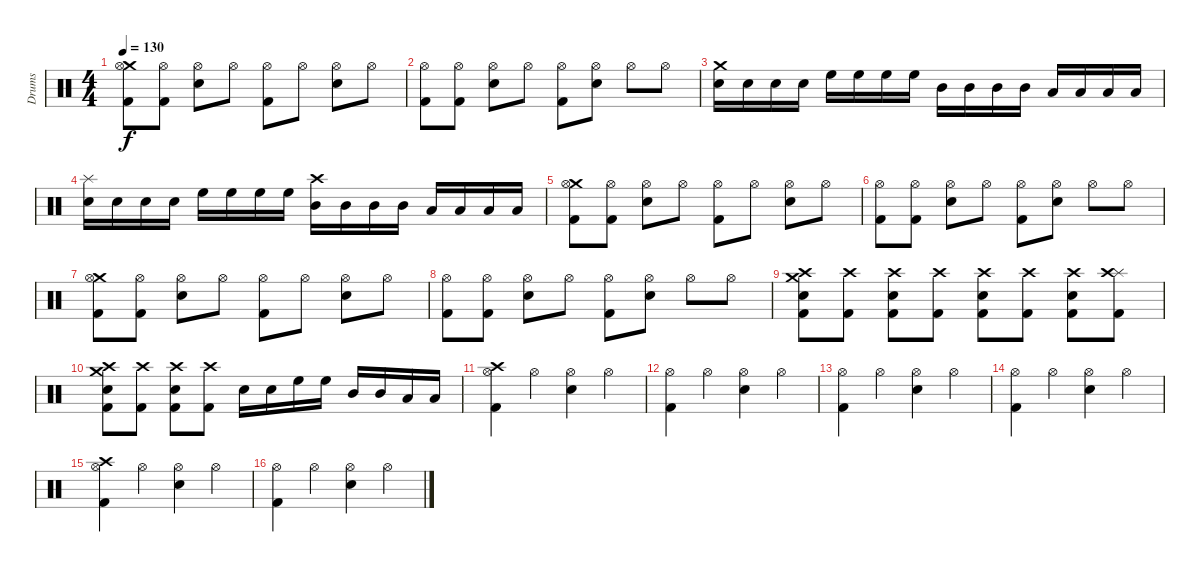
\track ("Drums" "Drums") {instrument percussion}
\staff {score}
\articulation defaults
\ts (4 4)
\tempo 130
\clef neutral
\ks c
("Crash medium (hit)" "Kick (hit) 2" "Hi-Hat (open)").8{dy f} ("Kick (hit) 2" "Hi-Hat (open)").8 ("Snare (hit) 2" "Hi-Hat (open)").8 "Hi-Hat (open)".8 ("Kick (hit) 2" "Hi-Hat (open)").8 "Hi-Hat (open)".8 ("Snare (hit) 2" "Hi-Hat (open)").8 "Hi-Hat (open)".8 |
("Kick (hit) 2" "Hi-Hat (open)").8 ("Kick (hit) 2" "Hi-Hat (open)").8 ("Snare (hit) 2" "Hi-Hat (open)").8 "Hi-Hat (open)".8 ("Kick (hit) 2" "Hi-Hat (open)").8 ("Snare (hit) 2" "Hi-Hat (open)").8 "Hi-Hat (open)".8 "Hi-Hat (open)".8 |
("Crash medium (hit)" "Snare (hit) 2").16 "Snare (hit) 2".16 "Snare (hit) 2".16 "Snare (hit) 2".16 "High Floor Tom (hit)".16 "High Floor Tom (hit)".16 "High Floor Tom (hit)".16 "High Floor Tom (hit)".16 "Mid Tom (hit)".16 "Mid Tom (hit)".16 "Mid Tom (hit)".16 "Mid Tom (hit)".16 "Low Tom (hit)".16 "Low Tom (hit)".16 "Low Tom (hit)".16 "Low Tom (hit)".16 |
("Splash (hit)" "Snare (hit) 2").16 "Snare (hit) 2".16 "Snare (hit) 2".16 "Snare (hit) 2".16 "High Floor Tom (hit)".16 "High Floor Tom (hit)".16 "High Floor Tom (hit)".16 "High Floor Tom (hit)".16 ("Crash high (hit)" "Mid Tom (hit)").16 "Mid Tom (hit)".16 "Mid Tom (hit)".16 "Mid Tom (hit)".16 "Low Tom (hit)".16 "Low Tom (hit)".16 "Low Tom (hit)".16 "Low Tom (hit)".16 |
("Crash medium (hit)" "Kick (hit) 2" "Hi-Hat (open)").8 ("Kick (hit) 2" "Hi-Hat (open)").8 ("Snare (hit) 2" "Hi-Hat (open)").8 "Hi-Hat (open)".8 ("Kick (hit) 2" "Hi-Hat (open)").8 "Hi-Hat (open)".8 ("Snare (hit) 2" "Hi-Hat (open)").8 "Hi-Hat (open)".8 |
("Kick (hit) 2" "Hi-Hat (open)").8 ("Kick (hit) 2" "Hi-Hat (open)").8 ("Snare (hit) 2" "Hi-Hat (open)").8 "Hi-Hat (open)".8 ("Kick (hit) 2" "Hi-Hat (open)").8 ("Snare (hit) 2" "Hi-Hat (open)").8 "Hi-Hat (open)".8 "Hi-Hat (open)".8 |
("Crash medium (hit)" "Kick (hit) 2" "Hi-Hat (open)").8 ("Kick (hit) 2" "Hi-Hat (open)").8 ("Snare (hit) 2" "Hi-Hat (open)").8 "Hi-Hat (open)".8 ("Kick (hit) 2" "Hi-Hat (open)").8 "Hi-Hat (open)".8 ("Snare (hit) 2" "Hi-Hat (open)").8 "Hi-Hat (open)".8 |
("Kick (hit) 2" "Hi-Hat (open)").8 ("Kick (hit) 2" "Hi-Hat (open)").8 ("Snare (hit) 2" "Hi-Hat (open)").8 "Hi-Hat (open)".8 ("Kick (hit) 2" "Hi-Hat (open)").8 ("Snare (hit) 2" "Hi-Hat (open)").8 "Hi-Hat (open)".8 "Hi-Hat (open)".8 |
("Crash medium (hit)" "Kick (hit) 2" "Snare (hit) 2" "Crash high (hit)").8 ("Kick (hit) 2" "Crash high (hit)").8 ("Kick (hit) 2" "Snare (hit) 2" "Crash high (hit)").8 ("Kick (hit) 2" "Crash high (hit)").8 ("Kick (hit) 2" "Snare (hit) 2" "Crash high (hit)").8 ("Kick (hit) 2" "Crash high (hit)").8 ("Kick (hit) 2" "Snare (hit) 2" "Crash high (hit)").8 ("Splash (hit)" "Kick (hit) 2" "Crash high (hit)").8 |
("Crash medium (hit)" "Kick (hit) 2" "Snare (hit) 2" "Crash high (hit)").8 ("Kick (hit) 2" "Crash high (hit)").8 ("Kick (hit) 2" "Snare (hit) 2" "Crash high (hit)").8 ("Kick (hit) 2" "Crash high (hit)").8 "Snare (hit) 2".16 "Snare (hit) 2".16 "High Floor Tom (hit)".16 "High Floor Tom (hit)".16 "Mid Tom (hit)".16 "Mid Tom (hit)".16 "Low Tom (hit)".16 "Low Tom (hit)".16 |
("Crash high (hit)" "Kick (hit) 2" "Hi-Hat (open)").4 "Hi-Hat (open)".4 ("Snare (hit) 2" "Hi-Hat (open)").4 "Hi-Hat (open)".4 |
("Kick (hit) 2" "Hi-Hat (open)").4 "Hi-Hat (open)".4 ("Snare (hit) 2" "Hi-Hat (open)").4 "Hi-Hat (open)".4 |
("Kick (hit) 2" "Hi-Hat (open)").4 "Hi-Hat (open)".4 ("Snare (hit) 2" "Hi-Hat (open)").4 "Hi-Hat (open)".4 |
("Kick (hit) 2" "Hi-Hat (open)").4 "Hi-Hat (open)".4 ("Snare (hit) 2" "Hi-Hat (open)").4 "Hi-Hat (open)".4 |
("Crash high (hit)" "Kick (hit) 2" "Hi-Hat (open)").4 "Hi-Hat (open)".4 ("Snare (hit) 2" "Hi-Hat (open)").4 "Hi-Hat (open)".4 |
("Kick (hit) 2" "Hi-Hat (open)").4 "Hi-Hat (open)".4 ("Snare (hit) 2" "Hi-Hat (open)").4 "Hi-Hat (open)".4
